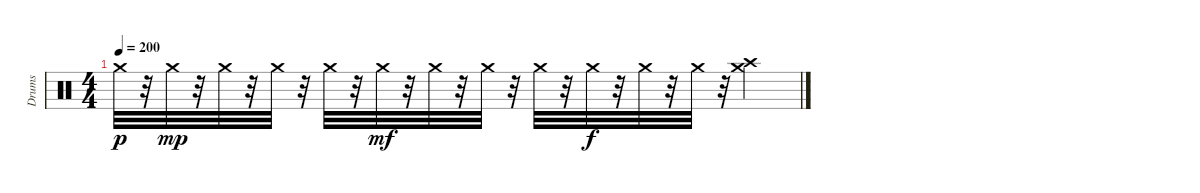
\track ("Drums" "Drums") {instrument percussion}
\staff {score}
\articulation defaults
\ts (4 4)
\tempo 200
\clef neutral
\ks c "Crash medium (hit)".32{dy p}
r.32 "Crash medium (hit)".32{dy mp} r.32 "Crash medium (hit)".32 r.32 "Crash medium (hit)".32 r.32 "Crash medium (hit)".32 r.32 "Crash medium (hit)".32{dy mf} r.32 "Crash medium (hit)".32 r.32 "Crash medium (hit)".32 r.32 "Crash medium (hit)".32 r.32 "Crash medium (hit)".32{dy f} r.32 "Crash medium (hit)".32 r.32 "Crash medium (hit)".32 r.32 ("Crash high (hit)" "Crash medium (hit)").4
